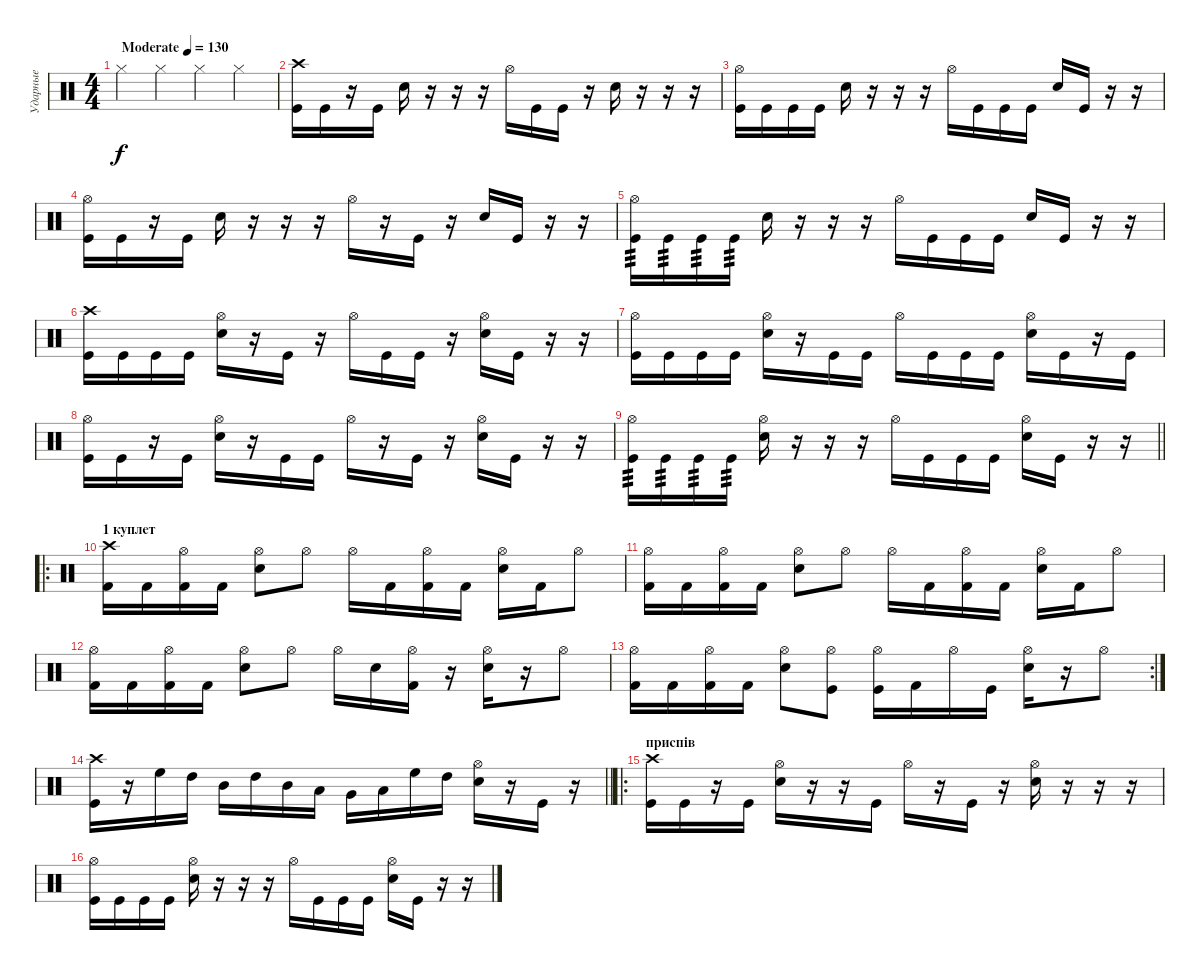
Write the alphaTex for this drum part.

\track ("Ударные" "Ударные") {instrument percussion}
\staff {score}
\articulation defaults
\ts (4 4)
\tempo (130 "Moderate")
\clef neutral
\ks c "Hi-Hat (closed)".4{dy f} "Hi-Hat (closed)".4 "Hi-Hat (closed)".4 "Hi-Hat (closed)".4
|
("Crash high (hit)" "Kick (hit)").16 "Kick (hit)".16 r.16 "Kick (hit)".16 "Snare (hit) 2".16 r.16 r.16 r.16 "Hi-Hat (open)".16 "Kick (hit)".16 "Kick (hit)".16 r.16 "Snare (hit) 2".16 r.16 r.16 r.16 |
("Hi-Hat (open)" "Kick (hit)").16 "Kick (hit)".16 "Kick (hit)".16 "Kick (hit)".16 "Snare (hit) 2".16 r.16 r.16 r.16 "Hi-Hat (open)".16 "Kick (hit)".16 "Kick (hit)".16 "Kick (hit)".16 "Snare (hit) 2".16 "Kick (hit)".16 r.16 r.16 |
("Hi-Hat (open)" "Kick (hit)").16 "Kick (hit)".16 r.16 "Kick (hit)".16 "Snare (hit) 2".16 r.16 r.16 r.16 "Hi-Hat (open)".16 r.16 "Kick (hit)".16 r.16 "Snare (hit) 2".16 "Kick (hit)".16 r.16 r.16 |
("Hi-Hat (open)" "Kick (hit)").16{tp 3} "Kick (hit)".16{tp 3} "Kick (hit)".16{tp 3} "Kick (hit)".16{tp 3} "Snare (hit) 2".16 r.16 r.16 r.16 "Hi-Hat (open)".16 "Kick (hit)".16 "Kick (hit)".16 "Kick (hit)".16 "Snare (hit) 2".16 "Kick (hit)".16 r.16 r.16 |
("Crash high (hit)" "Kick (hit)").16 "Kick (hit)".16 "Kick (hit)".16 "Kick (hit)".16 ("Snare (hit) 2" "Hi-Hat (open)").16 r.16 "Kick (hit)".16 r.16 "Hi-Hat (open)".16 "Kick (hit)".16 "Kick (hit)".16 r.16 ("Snare (hit) 2" "Hi-Hat (open)").16 "Kick (hit)".16 r.16 r.16 |
("Hi-Hat (open)" "Kick (hit)").16 "Kick (hit)".16 "Kick (hit)".16 "Kick (hit)".16 ("Snare (hit) 2" "Hi-Hat (open)").16 r.16 "Kick (hit)".16 "Kick (hit)".16 "Hi-Hat (open)".16 "Kick (hit)".16 "Kick (hit)".16 "Kick (hit)".16 ("Snare (hit) 2" "Hi-Hat (open)").16 "Kick (hit)".16 r.16 "Kick (hit)".16 |
("Hi-Hat (open)" "Kick (hit)").16 "Kick (hit)".16 r.16 "Kick (hit)".16 ("Snare (hit) 2" "Hi-Hat (open)").16 r.16 "Kick (hit)".16 "Kick (hit)".16 "Hi-Hat (open)".16 r.16 "Kick (hit)".16 r.16 ("Snare (hit) 2" "Hi-Hat (open)").16 "Kick (hit)".16 r.16 r.16 |
\barLineRight lightlight
("Hi-Hat (open)" "Kick (hit)").16{tp 3} "Kick (hit)".16{tp 3} "Kick (hit)".16{tp 3} "Kick (hit)".16{tp 3} ("Snare (hit) 2" "Hi-Hat (open)").16 r.16 r.16 r.16 "Hi-Hat (open)".16 "Kick (hit)".16 "Kick (hit)".16 "Kick (hit)".16 ("Snare (hit) 2" "Hi-Hat (open)").16 "Kick (hit)".16 r.16 r.16 |
\ro
\section ("" "1 куплет")
("Crash high (hit)" "Kick (hit) 2").16 "Kick (hit) 2".16 ("Hi-Hat (open)" "Kick (hit) 2").16 "Kick (hit) 2".16 ("Hi-Hat (open)" "Electric Snare (hit)").8 "Hi-Hat (open)".8 "Hi-Hat (open)".16 "Kick (hit) 2".16 ("Hi-Hat (open)" "Kick (hit) 2").16 "Kick (hit) 2".16 ("Hi-Hat (open)" "Electric Snare (hit)").16 "Kick (hit) 2".16 "Hi-Hat (open)".8 |
("Hi-Hat (open)" "Kick (hit) 2").16 "Kick (hit) 2".16 ("Hi-Hat (open)" "Kick (hit) 2").16 "Kick (hit) 2".16 ("Hi-Hat (open)" "Electric Snare (hit)").8 "Hi-Hat (open)".8 "Hi-Hat (open)".16 "Kick (hit) 2".16 ("Hi-Hat (open)" "Kick (hit) 2").16 "Kick (hit) 2".16 ("Hi-Hat (open)" "Electric Snare (hit)").16 "Kick (hit) 2".16 "Hi-Hat (open)".8 |
("Hi-Hat (open)" "Kick (hit) 2").16 "Kick (hit) 2".16 ("Hi-Hat (open)" "Kick (hit) 2").16 "Kick (hit) 2".16 ("Hi-Hat (open)" "Electric Snare (hit)").8 "Hi-Hat (open)".8 "Hi-Hat (open)".16 "Snare (hit) 2".16 ("Hi-Hat (open)" "Kick (hit) 2").16 r.16 ("Hi-Hat (open)" "Electric Snare (hit)").16 r.16 "Hi-Hat (open)".8 |
\rc 2
("Hi-Hat (open)" "Kick (hit) 2").16 "Kick (hit) 2".16 ("Hi-Hat (open)" "Kick (hit) 2").16 "Kick (hit) 2".16 ("Hi-Hat (open)" "Electric Snare (hit)").8 ("Hi-Hat (open)" "Kick (hit)").8 ("Hi-Hat (open)" "Kick (hit)").16 "Kick (hit) 2".16 "Hi-Hat (open)".16 "Kick (hit)".16 ("Hi-Hat (open)" "Snare (hit) 2").16 r.16 "Hi-Hat (open)".8 |
\barLineRight lightlight
("Kick (hit)" "Crash high (hit)").16 r.16 "High Floor Tom (hit)".16 "High Tom (hit)".16 "Mid Tom (hit)".16 "High Tom (hit)".16 "Mid Tom (hit)".16 "Low Tom (hit)".16 "Very Low Tom (hit)".16 "Low Floor Tom (hit)".16 "High Floor Tom (hit)".16 "High Tom (hit)".16 ("Snare (hit) 2" "Hi-Hat (open)").16 r.16 "Kick (hit)".16 r.16 |
\ro
\section ("" "приспів")
("Crash high (hit)" "Kick (hit)").16 "Kick (hit)".16 r.16 "Kick (hit)".16 ("Snare (hit) 2" "Hi-Hat (open)").16 r.16 r.16 "Kick (hit)".16 "Hi-Hat (open)".16 r.16 "Kick (hit)".16 r.16 ("Snare (hit) 2" "Hi-Hat (open)").16 r.16 r.16 r.16 |
("Hi-Hat (open)" "Kick (hit)").16 "Kick (hit)".16 "Kick (hit)".16 "Kick (hit)".16 ("Snare (hit) 2" "Hi-Hat (open)").16 r.16 r.16 r.16 "Hi-Hat (open)".16 "Kick (hit)".16 "Kick (hit)".16 "Kick (hit)".16 ("Snare (hit) 2" "Hi-Hat (open)").16 "Kick (hit)".16 r.16 r.16
